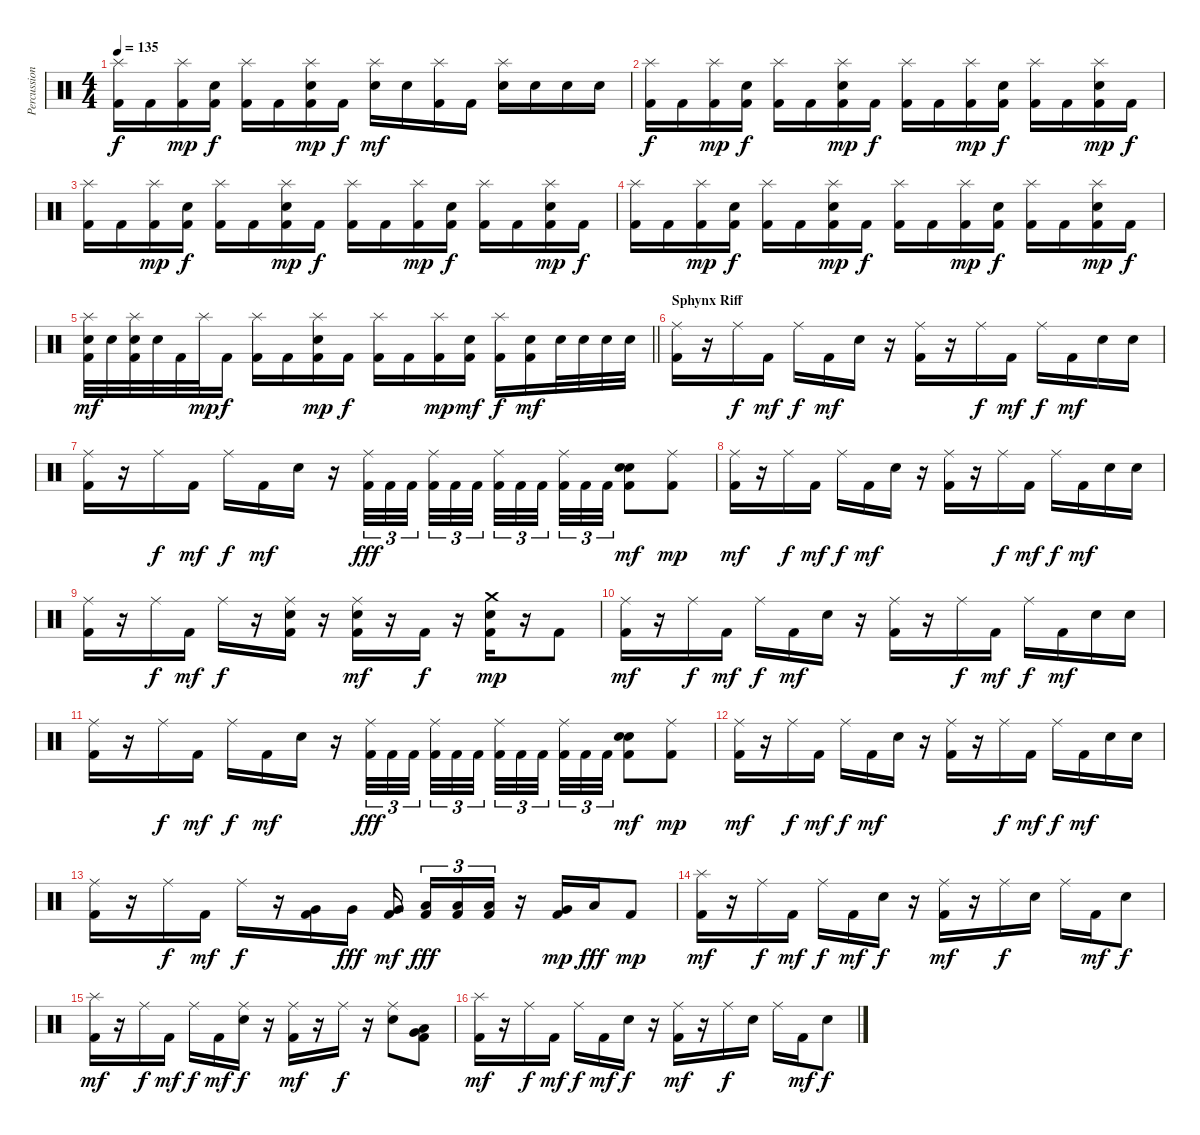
\track ("Percussion" "Percussion") {instrument percussion}
\staff {score}
\articulation defaults
\ts (4 4)
\tempo 135
\clef neutral
\ks c
("Splash (hit)" "Kick (hit) 2").16{dy f} "Kick (hit) 2".16 ("Splash (hit)" "Kick (hit) 2").16{dy mp} ("Electric Snare (hit)" "Kick (hit) 2").16{dy f} ("Splash (hit)" "Kick (hit) 2").16 "Kick (hit) 2".16 ("Splash (hit)" "Electric Snare (hit)" "Kick (hit) 2").16{dy mp} "Kick (hit) 2".16{dy f} ("Splash (hit)" "Electric Snare (hit)").16{dy mf} "Electric Snare (hit)".16 ("Splash (hit)" "Kick (hit) 2").16 "Kick (hit) 2".16 ("Splash (hit)" "Electric Snare (hit)").16 "Electric Snare (hit)".16 "Electric Snare (hit)".16 "Electric Snare (hit)".16 |
("Splash (hit)" "Kick (hit) 2").16{dy f} "Kick (hit) 2".16 ("Splash (hit)" "Kick (hit) 2").16{dy mp} ("Electric Snare (hit)" "Kick (hit) 2").16{dy f} ("Splash (hit)" "Kick (hit) 2").16 "Kick (hit) 2".16 ("Splash (hit)" "Electric Snare (hit)" "Kick (hit) 2").16{dy mp} "Kick (hit) 2".16{dy f} ("Splash (hit)" "Kick (hit) 2").16 "Kick (hit) 2".16 ("Splash (hit)" "Kick (hit) 2").16{dy mp} ("Electric Snare (hit)" "Kick (hit) 2").16{dy f} ("Splash (hit)" "Kick (hit) 2").16 "Kick (hit) 2".16 ("Splash (hit)" "Electric Snare (hit)" "Kick (hit) 2").16{dy mp} "Kick (hit) 2".16{dy f} |
("Splash (hit)" "Kick (hit) 2").16 "Kick (hit) 2".16 ("Splash (hit)" "Kick (hit) 2").16{dy mp} ("Electric Snare (hit)" "Kick (hit) 2").16{dy f} ("Splash (hit)" "Kick (hit) 2").16 "Kick (hit) 2".16 ("Splash (hit)" "Electric Snare (hit)" "Kick (hit) 2").16{dy mp} "Kick (hit) 2".16{dy f} ("Splash (hit)" "Kick (hit) 2").16 "Kick (hit) 2".16 ("Splash (hit)" "Kick (hit) 2").16{dy mp} ("Electric Snare (hit)" "Kick (hit) 2").16{dy f} ("Splash (hit)" "Kick (hit) 2").16 "Kick (hit) 2".16 ("Splash (hit)" "Electric Snare (hit)" "Kick (hit) 2").16{dy mp} "Kick (hit) 2".16{dy f} |
("Splash (hit)" "Kick (hit) 2").16 "Kick (hit) 2".16 ("Splash (hit)" "Kick (hit) 2").16{dy mp} ("Electric Snare (hit)" "Kick (hit) 2").16{dy f} ("Splash (hit)" "Kick (hit) 2").16 "Kick (hit) 2".16 ("Splash (hit)" "Electric Snare (hit)" "Kick (hit) 2").16{dy mp} "Kick (hit) 2".16{dy f} ("Splash (hit)" "Kick (hit) 2").16 "Kick (hit) 2".16 ("Splash (hit)" "Kick (hit) 2").16{dy mp} ("Electric Snare (hit)" "Kick (hit) 2").16{dy f} ("Splash (hit)" "Kick (hit) 2").16 "Kick (hit) 2".16 ("Splash (hit)" "Electric Snare (hit)" "Kick (hit) 2").16{dy mp} "Kick (hit) 2".16{dy f} |
\barLineRight lightlight
("Splash (hit)" "Electric Snare (hit)" "Kick (hit) 2").32{dy mf} "Electric Snare (hit)".32 ("Splash (hit)" "Electric Snare (hit)" "Kick (hit) 2").32 "Electric Snare (hit)".32 "Kick (hit) 2".32 "Splash (hit)".32{dy mp} "Kick (hit) 2".16{dy f} ("Splash (hit)" "Kick (hit) 2").16 "Kick (hit) 2".16 ("Splash (hit)" "Electric Snare (hit)" "Kick (hit) 2").16{dy mp} "Kick (hit) 2".16{dy f} ("Splash (hit)" "Kick (hit) 2").16 "Kick (hit) 2".16 ("Splash (hit)" "Kick (hit) 2").16{dy mp} ("Electric Snare (hit)" "Kick (hit) 2").16{dy mf} ("Splash (hit)" "Kick (hit) 2").16{dy f} ("Electric Snare (hit)" "Kick (hit) 2").16{dy mf} "Electric Snare (hit)".32 "Electric Snare (hit)".32 "Electric Snare (hit)".32 "Electric Snare (hit)".32 |
\section ("" "Sphynx Riff")
("Ride (middle)" "Kick (hit) 2").16 r.16 "Ride (middle)".16{dy f} "Kick (hit) 2".16{dy mf} "Ride (middle)".16{dy f} "Kick (hit) 2".16{dy mf} "Electric Snare (hit)".16 r.16 ("Ride (middle)" "Kick (hit) 2").16 r.16 "Ride (middle)".16{dy f} "Kick (hit) 2".16{dy mf} "Ride (middle)".16{dy f} "Kick (hit) 2".16{dy mf} "Electric Snare (hit)".16 "Electric Snare (hit)".16 |
("Ride (middle)" "Kick (hit) 2").16 r.16 "Ride (middle)".16{dy f} "Kick (hit) 2".16{dy mf} "Ride (middle)".16{dy f} "Kick (hit) 2".16{dy mf} "Electric Snare (hit)".16 r.16 ("Ride (middle)" "Kick (hit) 2").32{tu (3 2) dy fff} "Kick (hit) 2".32{tu (3 2)} "Kick (hit) 2".32{tu (3 2)} ("Ride (middle)" "Kick (hit) 2").32{tu (3 2)} "Kick (hit) 2".32{tu (3 2)} "Kick (hit) 2".32{tu (3 2)} ("Ride (middle)" "Kick (hit) 2").32{tu (3 2)} "Kick (hit) 2".32{tu (3 2)} "Kick (hit) 2".32{tu (3 2)} ("Ride (middle)" "Kick (hit) 2").32{tu (3 2)} "Kick (hit) 2".32{tu (3 2)} "Kick (hit) 2".32{tu (3 2)} ("Electric Snare (hit)" "Snare (hit) 2" "Kick (hit) 2").8{dy mf} ("Ride (middle)" "Kick (hit) 2").8{dy mp} |
("Ride (middle)" "Kick (hit) 2").16{dy mf} r.16 "Ride (middle)".16{dy f} "Kick (hit) 2".16{dy mf} "Ride (middle)".16{dy f} "Kick (hit) 2".16{dy mf} "Electric Snare (hit)".16 r.16 ("Ride (middle)" "Kick (hit) 2").16 r.16 "Ride (middle)".16{dy f} "Kick (hit) 2".16{dy mf} "Ride (middle)".16{dy f} "Kick (hit) 2".16{dy mf} "Electric Snare (hit)".16 "Electric Snare (hit)".16 |
("Ride (middle)" "Kick (hit) 2").16 r.16 "Ride (middle)".16{dy f} "Kick (hit) 2".16{dy mf} "Ride (middle)".16{dy f} r.16 ("Ride (middle)" "Electric Snare (hit)" "Kick (hit) 2").16 r.16 ("Ride (middle)" "Electric Snare (hit)" "Kick (hit) 2").16{dy mf} r.16 "Kick (hit) 2".16{dy f} r.16 ("Crash medium (hit)" "Electric Snare (hit)" "Kick (hit) 2").16{dy mp} r.16 "Kick (hit) 2".8 |
("Ride (middle)" "Kick (hit) 2").16{dy mf} r.16 "Ride (middle)".16{dy f} "Kick (hit) 2".16{dy mf} "Ride (middle)".16{dy f} "Kick (hit) 2".16{dy mf} "Electric Snare (hit)".16 r.16 ("Ride (middle)" "Kick (hit) 2").16 r.16 "Ride (middle)".16{dy f} "Kick (hit) 2".16{dy mf} "Ride (middle)".16{dy f} "Kick (hit) 2".16{dy mf} "Electric Snare (hit)".16 "Electric Snare (hit)".16 |
("Ride (middle)" "Kick (hit) 2").16 r.16 "Ride (middle)".16{dy f} "Kick (hit) 2".16{dy mf} "Ride (middle)".16{dy f} "Kick (hit) 2".16{dy mf} "Electric Snare (hit)".16 r.16 ("Ride (middle)" "Kick (hit) 2").32{tu (3 2) dy fff} "Kick (hit) 2".32{tu (3 2)} "Kick (hit) 2".32{tu (3 2)} ("Ride (middle)" "Kick (hit) 2").32{tu (3 2)} "Kick (hit) 2".32{tu (3 2)} "Kick (hit) 2".32{tu (3 2)} ("Ride (middle)" "Kick (hit) 2").32{tu (3 2)} "Kick (hit) 2".32{tu (3 2)} "Kick (hit) 2".32{tu (3 2)} ("Ride (middle)" "Kick (hit) 2").32{tu (3 2)} "Kick (hit) 2".32{tu (3 2)} "Kick (hit) 2".32{tu (3 2)} ("Electric Snare (hit)" "Snare (hit) 2" "Kick (hit) 2").8{dy mf} ("Ride (middle)" "Kick (hit) 2").8{dy mp} |
("Ride (middle)" "Kick (hit) 2").16{dy mf} r.16 "Ride (middle)".16{dy f} "Kick (hit) 2".16{dy mf} "Ride (middle)".16{dy f} "Kick (hit) 2".16{dy mf} "Electric Snare (hit)".16 r.16 ("Ride (middle)" "Kick (hit) 2").16 r.16 "Ride (middle)".16{dy f} "Kick (hit) 2".16{dy mf} "Ride (middle)".16{dy f} "Kick (hit) 2".16{dy mf} "Electric Snare (hit)".16 "Electric Snare (hit)".16 |
("Ride (middle)" "Kick (hit) 2").16 r.16 "Ride (middle)".16{dy f} "Kick (hit) 2".16{dy mf} "Ride (middle)".16{dy f} r.16 ("Very Low Tom (hit)" "Kick (hit) 2").16 "Very Low Tom (hit)".16{dy fff} ("Very Low Tom (hit)" "Kick (hit) 2").16{dy mf} ("Low Floor Tom (hit)" "Kick (hit) 2").16{tu (3 2) dy fff} ("Low Floor Tom (hit)" "Kick (hit) 2").16{tu (3 2)} ("Low Floor Tom (hit)" "Kick (hit) 2").16{tu (3 2)} r.16 ("Very Low Tom (hit)" "Kick (hit) 2").16{dy mp} "Low Floor Tom (hit)".16{dy fff} "Kick (hit) 2".8{dy mp} |
("Splash (hit)" "Kick (hit) 2").16{dy mf} r.16 "Ride (middle)".16{dy f} "Kick (hit) 2".16{dy mf} "Ride (middle)".16{dy f} "Kick (hit) 2".16{dy mf} "Electric Snare (hit)".16{dy f} r.16 ("Ride (middle)" "Kick (hit) 2").16{dy mf} r.16 "Ride (middle)".16{dy f} "Electric Snare (hit)".16 "Ride (middle)".16 "Kick (hit) 2".16{dy mf} "Electric Snare (hit)".8{dy f} |
("Splash (hit)" "Kick (hit) 2").16{dy mf} r.16 "Ride (middle)".16{dy f} "Kick (hit) 2".16{dy mf} "Ride (middle)".16{dy f} "Kick (hit) 2".16{dy mf} ("Ride (middle)" "Electric Snare (hit)").16{dy f} r.16 ("Ride (middle)" "Kick (hit) 2").16{dy mf} r.16 "Ride (middle)".16{dy f} r.16 ("Ride (middle)" "Electric Snare (hit)").8 ("Very Low Tom (hit)" "Low Floor Tom (hit)" "Kick (hit) 2").8 |
("Splash (hit)" "Kick (hit) 2").16{dy mf} r.16 "Ride (middle)".16{dy f} "Kick (hit) 2".16{dy mf} "Ride (middle)".16{dy f} "Kick (hit) 2".16{dy mf} "Electric Snare (hit)".16{dy f} r.16 ("Ride (middle)" "Kick (hit) 2").16{dy mf} r.16 "Ride (middle)".16{dy f} "Electric Snare (hit)".16 "Ride (middle)".16 "Kick (hit) 2".16{dy mf} "Electric Snare (hit)".8{dy f}
